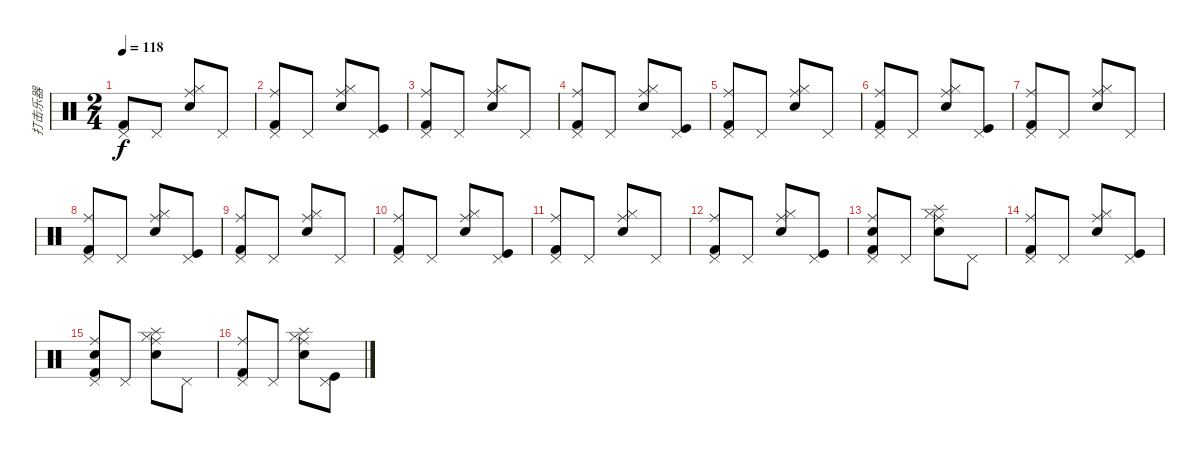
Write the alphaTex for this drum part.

\track ("打击乐器" "打击乐器") {instrument percussion}
\staff {score}
\articulation defaults
\ts (2 4)
\tempo 118
\clef neutral
\ks c
("Pedal Hi-Hat (hit)" "Kick (hit) 2").8{dy f} "Pedal Hi-Hat (hit)".8 ("Ride (middle)" "Hi-Hat (closed)" "Snare (hit) 2").8 "Pedal Hi-Hat (hit)".8 |
("Pedal Hi-Hat (hit)" "Ride (middle)" "Kick (hit) 2").8 "Pedal Hi-Hat (hit)".8 ("Ride (middle)" "Hi-Hat (closed)" "Snare (hit) 2").8 ("Pedal Hi-Hat (hit)" "Kick (hit)").8 |
("Pedal Hi-Hat (hit)" "Ride (middle)" "Kick (hit) 2").8 "Pedal Hi-Hat (hit)".8 ("Ride (middle)" "Hi-Hat (closed)" "Snare (hit) 2").8 "Pedal Hi-Hat (hit)".8 |
("Pedal Hi-Hat (hit)" "Ride (middle)" "Kick (hit) 2").8 "Pedal Hi-Hat (hit)".8 ("Ride (middle)" "Hi-Hat (closed)" "Snare (hit) 2").8 ("Pedal Hi-Hat (hit)" "Kick (hit)").8 |
("Pedal Hi-Hat (hit)" "Ride (middle)" "Kick (hit) 2").8 "Pedal Hi-Hat (hit)".8 ("Ride (middle)" "Hi-Hat (closed)" "Snare (hit) 2").8 "Pedal Hi-Hat (hit)".8 |
("Pedal Hi-Hat (hit)" "Ride (middle)" "Kick (hit) 2").8 "Pedal Hi-Hat (hit)".8 ("Ride (middle)" "Hi-Hat (closed)" "Snare (hit) 2").8 ("Pedal Hi-Hat (hit)" "Kick (hit)").8 |
("Pedal Hi-Hat (hit)" "Ride (middle)" "Kick (hit) 2").8 "Pedal Hi-Hat (hit)".8 ("Ride (middle)" "Hi-Hat (closed)" "Snare (hit) 2").8 "Pedal Hi-Hat (hit)".8 |
("Pedal Hi-Hat (hit)" "Ride (middle)" "Kick (hit) 2").8 "Pedal Hi-Hat (hit)".8 ("Ride (middle)" "Hi-Hat (closed)" "Snare (hit) 2").8 ("Pedal Hi-Hat (hit)" "Kick (hit)").8 |
("Pedal Hi-Hat (hit)" "Ride (middle)" "Kick (hit) 2").8 "Pedal Hi-Hat (hit)".8 ("Ride (middle)" "Hi-Hat (closed)" "Snare (hit) 2").8 "Pedal Hi-Hat (hit)".8 |
("Pedal Hi-Hat (hit)" "Ride (middle)" "Kick (hit) 2").8 "Pedal Hi-Hat (hit)".8 ("Ride (middle)" "Hi-Hat (closed)" "Snare (hit) 2").8 ("Pedal Hi-Hat (hit)" "Kick (hit)").8 |
("Pedal Hi-Hat (hit)" "Ride (middle)" "Kick (hit) 2").8 "Pedal Hi-Hat (hit)".8 ("Ride (middle)" "Hi-Hat (closed)" "Snare (hit) 2").8 "Pedal Hi-Hat (hit)".8 |
("Pedal Hi-Hat (hit)" "Ride (middle)" "Kick (hit) 2").8 "Pedal Hi-Hat (hit)".8 ("Ride (middle)" "Hi-Hat (closed)" "Snare (hit) 2").8 ("Pedal Hi-Hat (hit)" "Kick (hit)").8 |
("Snare (hit) 2" "Pedal Hi-Hat (hit)" "Ride (middle)" "Kick (hit) 2").8 "Pedal Hi-Hat (hit)".8 ("Ride (middle)" "Hi-Hat (closed)" "Splash (hit)" "Snare (hit) 2").8 "Pedal Hi-Hat (hit)".8 |
("Pedal Hi-Hat (hit)" "Ride (middle)" "Kick (hit) 2").8 "Pedal Hi-Hat (hit)".8 ("Ride (middle)" "Hi-Hat (closed)" "Snare (hit) 2").8 ("Pedal Hi-Hat (hit)" "Kick (hit)").8 |
("Snare (hit) 2" "Pedal Hi-Hat (hit)" "Ride (middle)" "Kick (hit) 2").8 "Pedal Hi-Hat (hit)".8 ("Ride (middle)" "Hi-Hat (closed)" "Splash (hit)" "Snare (hit) 2").8 "Pedal Hi-Hat (hit)".8 |
("Pedal Hi-Hat (hit)" "Ride (middle)" "Kick (hit) 2").8 "Pedal Hi-Hat (hit)".8 ("Ride (middle)" "Hi-Hat (closed)" "Splash (hit)" "Snare (hit) 2").8 ("Pedal Hi-Hat (hit)" "Kick (hit)").8
